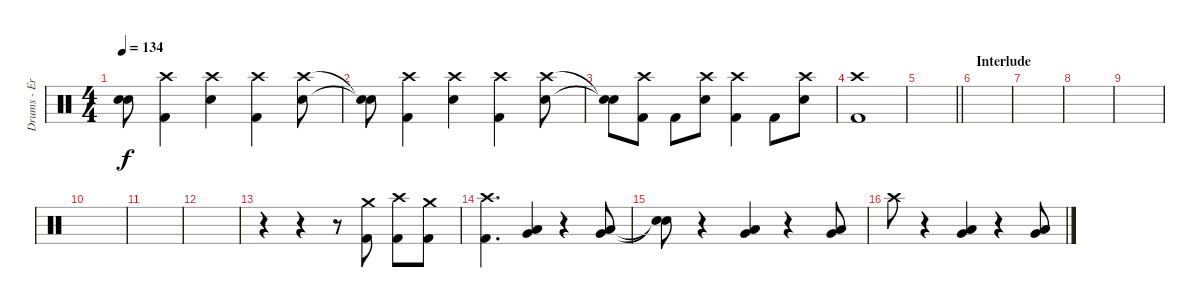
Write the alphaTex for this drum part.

\track ("Drums - Eric Young" "Drums - Er") {instrument percussion}
\staff {score}
\articulation defaults
\ts (4 4)
\tempo 134
\clef neutral
\ks c
("Snare (hit)"{t} "Snare (hit)"{t}).8{dy f} ("Crash high (hit)" "Kick (hit) 2").4 ("Crash high (hit)" "Electric Snare (hit)").4 ("Crash high (hit)" "Kick (hit) 2").4 ("Crash high (hit)" "Electric Snare (hit)").8 |
("Snare (hit)"{t} "Snare (hit)"{t}).8 ("Crash high (hit)" "Kick (hit) 2").4 ("Crash high (hit)" "Electric Snare (hit)").4 ("Crash high (hit)" "Kick (hit) 2").4 ("Crash high (hit)" "Electric Snare (hit)").8 |
("Snare (hit)"{t} "Snare (hit)"{t}).8 ("Crash high (hit)" "Kick (hit) 2").8 "Kick (hit) 2".8 ("Crash high (hit)" "Electric Snare (hit)").8 ("Crash high (hit)" "Kick (hit) 2").4 "Kick (hit) 2".8 ("Crash high (hit)" "Electric Snare (hit)").8 |
("Crash high (hit)" "Kick (hit) 2").1 |
\barLineRight lightlight
|
\section ("" "Interlude")
|
|
|
|
|
|
|
r.4 r.4 r.8 ("Crash medium (hit)" "Kick (hit) 2").8 ("Crash high (hit)" "Kick (hit) 2").8 ("Crash medium (hit)" "Kick (hit) 2").8 |
("Crash high (hit)" "Kick (hit) 2").4{d} ("Low Tom (hit)" "Very Low Tom (hit)").4 r.4 ("Low Tom (hit)" "Very Low Tom (hit)").8 |
("Snare (hit)"{t} "Snare (hit)"{t}).8 r.4 ("Low Tom (hit)" "Very Low Tom (hit)").4 r.4 ("Low Tom (hit)" "Very Low Tom (hit)").8 |
"Crash high (hit)".8 r.4 ("Low Tom (hit)" "Very Low Tom (hit)").4 r.4 ("Low Tom (hit)" "Very Low Tom (hit)").8
